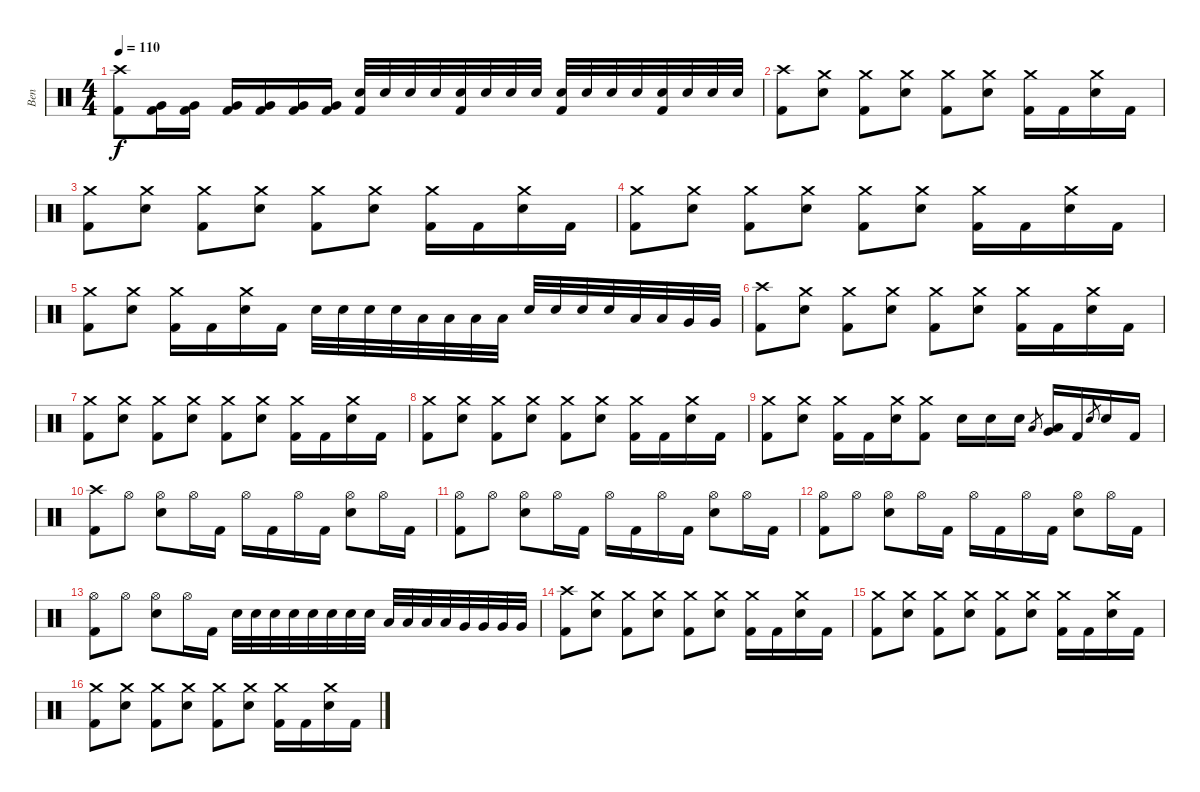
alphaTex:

\track ("Ben" "Ben") {instrument percussion}
\staff {score}
\articulation defaults
\ts (4 4)
\tempo 110
\clef neutral
\ks c
("Crash high (hit)" "Kick (hit) 2").8{dy f} ("Kick (hit) 2" "Very Low Tom (hit)").16 ("Kick (hit) 2" "Very Low Tom (hit)").16 ("Kick (hit) 2" "Very Low Tom (hit)").16 ("Kick (hit) 2" "Very Low Tom (hit)").16 ("Kick (hit) 2" "Very Low Tom (hit)").16 ("Kick (hit) 2" "Very Low Tom (hit)").16 ("Kick (hit) 2" "Snare (hit) 2").32 "Snare (hit) 2".32 "Snare (hit) 2".32 "Snare (hit) 2".32 ("Kick (hit) 2" "Snare (hit) 2").32 "Snare (hit) 2".32 "Snare (hit) 2".32 "Snare (hit) 2".32 ("Kick (hit) 2" "Snare (hit) 2").32 "Snare (hit) 2".32 "Snare (hit) 2".32 "Snare (hit) 2".32 ("Kick (hit) 2" "Snare (hit) 2").32 "Snare (hit) 2".32 "Snare (hit) 2".32 "Snare (hit) 2".32 |
("Crash high (hit)" "Kick (hit) 2").8 ("Crash medium (hit)" "Snare (hit) 2").8 ("Crash medium (hit)" "Kick (hit) 2").8 ("Crash medium (hit)" "Snare (hit) 2").8 ("Crash medium (hit)" "Kick (hit) 2").8 ("Crash medium (hit)" "Snare (hit) 2").8 ("Crash medium (hit)" "Kick (hit) 2").16 "Kick (hit) 2".16 ("Crash medium (hit)" "Snare (hit) 2").16 "Kick (hit) 2".16 |
("Crash medium (hit)" "Kick (hit) 2").8 ("Crash medium (hit)" "Snare (hit) 2").8 ("Crash medium (hit)" "Kick (hit) 2").8 ("Crash medium (hit)" "Snare (hit) 2").8 ("Crash medium (hit)" "Kick (hit) 2").8 ("Crash medium (hit)" "Snare (hit) 2").8 ("Crash medium (hit)" "Kick (hit) 2").16 "Kick (hit) 2".16 ("Crash medium (hit)" "Snare (hit) 2").16 "Kick (hit) 2".16 |
("Crash medium (hit)" "Kick (hit) 2").8 ("Crash medium (hit)" "Snare (hit) 2").8 ("Crash medium (hit)" "Kick (hit) 2").8 ("Crash medium (hit)" "Snare (hit) 2").8 ("Crash medium (hit)" "Kick (hit) 2").8 ("Crash medium (hit)" "Snare (hit) 2").8 ("Crash medium (hit)" "Kick (hit) 2").16 "Kick (hit) 2".16 ("Crash medium (hit)" "Snare (hit) 2").16 "Kick (hit) 2".16 |
("Crash medium (hit)" "Kick (hit) 2").8 ("Crash medium (hit)" "Snare (hit) 2").8 ("Crash medium (hit)" "Kick (hit) 2").16 "Kick (hit) 2".16 ("Crash medium (hit)" "Snare (hit) 2").16 "Kick (hit) 2".16 "Snare (hit) 2".32 "Snare (hit) 2".32 "Snare (hit) 2".32 "Snare (hit) 2".32 "Low Tom (hit)".32 "Low Tom (hit)".32 "Low Tom (hit)".32 "Low Tom (hit)".32 "Snare (hit) 2".32 "Snare (hit) 2".32 "Snare (hit) 2".32 "Snare (hit) 2".32 "Low Tom (hit)".32 "Low Tom (hit)".32 "Very Low Tom (hit)".32 "Very Low Tom (hit)".32 |
("Crash high (hit)" "Kick (hit) 2").8 ("Crash medium (hit)" "Snare (hit) 2").8 ("Crash medium (hit)" "Kick (hit) 2").8 ("Crash medium (hit)" "Snare (hit) 2").8 ("Crash medium (hit)" "Kick (hit) 2").8 ("Crash medium (hit)" "Snare (hit) 2").8 ("Crash medium (hit)" "Kick (hit) 2").16 "Kick (hit) 2".16 ("Crash medium (hit)" "Snare (hit) 2").16 "Kick (hit) 2".16 |
("Crash medium (hit)" "Kick (hit) 2").8 ("Crash medium (hit)" "Snare (hit) 2").8 ("Crash medium (hit)" "Kick (hit) 2").8 ("Crash medium (hit)" "Snare (hit) 2").8 ("Crash medium (hit)" "Kick (hit) 2").8 ("Crash medium (hit)" "Snare (hit) 2").8 ("Crash medium (hit)" "Kick (hit) 2").16 "Kick (hit) 2".16 ("Crash medium (hit)" "Snare (hit) 2").16 "Kick (hit) 2".16 |
("Crash medium (hit)" "Kick (hit) 2").8 ("Crash medium (hit)" "Snare (hit) 2").8 ("Crash medium (hit)" "Kick (hit) 2").8 ("Crash medium (hit)" "Snare (hit) 2").8 ("Crash medium (hit)" "Kick (hit) 2").8 ("Crash medium (hit)" "Snare (hit) 2").8 ("Crash medium (hit)" "Kick (hit) 2").16 "Kick (hit) 2".16 ("Crash medium (hit)" "Snare (hit) 2").16 "Kick (hit) 2".16 |
("Crash medium (hit)" "Kick (hit) 2").8 ("Crash medium (hit)" "Snare (hit) 2").8 ("Crash medium (hit)" "Kick (hit) 2").16 "Kick (hit) 2".16 ("Crash medium (hit)" "Snare (hit) 2").16 ("Crash medium (hit)" "Kick (hit) 2").8 "Snare (hit) 2".16 "Snare (hit) 2".16 "Snare (hit) 2".16 "Low Floor Tom (hit)".8{gr} ("Low Floor Tom (hit)" "Very Low Tom (hit)").16 "Kick (hit) 2".16 "Snare (hit) 2".8{gr} "Snare (hit) 2".16 "Kick (hit) 2".16 |
("Crash high (hit)" "Kick (hit) 2").8 "Hi-Hat (open)".8 ("Hi-Hat (open)" "Snare (hit) 2").8 "Hi-Hat (open)".16 "Kick (hit) 2".16 "Hi-Hat (open)".16 "Kick (hit) 2".16 "Hi-Hat (open)".16 "Kick (hit) 2".16 ("Hi-Hat (open)" "Snare (hit) 2").8 "Hi-Hat (open)".16 "Kick (hit) 2".16 |
("Hi-Hat (open)" "Kick (hit) 2").8 "Hi-Hat (open)".8 ("Hi-Hat (open)" "Snare (hit) 2").8 "Hi-Hat (open)".16 "Kick (hit) 2".16 "Hi-Hat (open)".16 "Kick (hit) 2".16 "Hi-Hat (open)".16 "Kick (hit) 2".16 ("Hi-Hat (open)" "Snare (hit) 2").8 "Hi-Hat (open)".16 "Kick (hit) 2".16 |
("Hi-Hat (open)" "Kick (hit) 2").8 "Hi-Hat (open)".8 ("Hi-Hat (open)" "Snare (hit) 2").8 "Hi-Hat (open)".16 "Kick (hit) 2".16 "Hi-Hat (open)".16 "Kick (hit) 2".16 "Hi-Hat (open)".16 "Kick (hit) 2".16 ("Hi-Hat (open)" "Snare (hit) 2").8 "Hi-Hat (open)".16 "Kick (hit) 2".16 |
("Hi-Hat (open)" "Kick (hit) 2").8 "Hi-Hat (open)".8 ("Hi-Hat (open)" "Snare (hit) 2").8 "Hi-Hat (open)".16 "Kick (hit) 2".16 "Snare (hit) 2".32 "Snare (hit) 2".32 "Snare (hit) 2".32 "Snare (hit) 2".32 "Snare (hit) 2".32 "Snare (hit) 2".32 "Snare (hit) 2".32 "Snare (hit) 2".32 "Low Tom (hit)".32 "Low Tom (hit)".32 "Low Tom (hit)".32 "Low Tom (hit)".32 "Very Low Tom (hit)".32 "Very Low Tom (hit)".32 "Very Low Tom (hit)".32 "Very Low Tom (hit)".32 |
("Crash high (hit)" "Kick (hit) 2").8 ("Crash medium (hit)" "Snare (hit) 2").8 ("Crash medium (hit)" "Kick (hit) 2").8 ("Crash medium (hit)" "Snare (hit) 2").8 ("Crash medium (hit)" "Kick (hit) 2").8 ("Crash medium (hit)" "Snare (hit) 2").8 ("Crash medium (hit)" "Kick (hit) 2").16 "Kick (hit) 2".16 ("Crash medium (hit)" "Snare (hit) 2").16 "Kick (hit) 2".16 |
("Crash medium (hit)" "Kick (hit) 2").8 ("Crash medium (hit)" "Snare (hit) 2").8 ("Crash medium (hit)" "Kick (hit) 2").8 ("Crash medium (hit)" "Snare (hit) 2").8 ("Crash medium (hit)" "Kick (hit) 2").8 ("Crash medium (hit)" "Snare (hit) 2").8 ("Crash medium (hit)" "Kick (hit) 2").16 "Kick (hit) 2".16 ("Crash medium (hit)" "Snare (hit) 2").16 "Kick (hit) 2".16 |
("Crash medium (hit)" "Kick (hit) 2").8 ("Crash medium (hit)" "Snare (hit) 2").8 ("Crash medium (hit)" "Kick (hit) 2").8 ("Crash medium (hit)" "Snare (hit) 2").8 ("Crash medium (hit)" "Kick (hit) 2").8 ("Crash medium (hit)" "Snare (hit) 2").8 ("Crash medium (hit)" "Kick (hit) 2").16 "Kick (hit) 2".16 ("Crash medium (hit)" "Snare (hit) 2").16 "Kick (hit) 2".16
